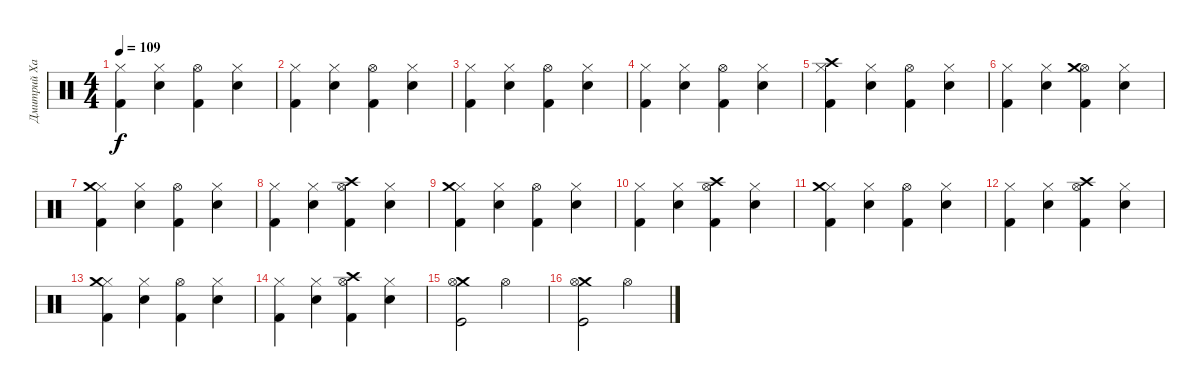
\track ("Дмитрий Хакимов" "Дмитрий Ха") {instrument percussion}
\staff {score}
\articulation defaults
\ts (4 4)
\tempo 109
\clef neutral
\ks c
("Hi-Hat (closed)" "Kick (hit) 2").4{dy f} ("Hi-Hat (closed)" "Snare (hit) 2").4 ("Hi-Hat (open)" "Kick (hit) 2").4 ("Hi-Hat (closed)" "Snare (hit) 2").4 |
("Hi-Hat (closed)" "Kick (hit) 2").4 ("Hi-Hat (closed)" "Snare (hit) 2").4 ("Hi-Hat (open)" "Kick (hit) 2").4 ("Hi-Hat (closed)" "Snare (hit) 2").4 |
("Hi-Hat (closed)" "Kick (hit) 2").4 ("Hi-Hat (closed)" "Snare (hit) 2").4 ("Hi-Hat (open)" "Kick (hit) 2").4 ("Hi-Hat (closed)" "Snare (hit) 2").4 |
("Hi-Hat (closed)" "Kick (hit) 2").4 ("Hi-Hat (closed)" "Snare (hit) 2").4 ("Hi-Hat (open)" "Kick (hit) 2").4 ("Hi-Hat (closed)" "Snare (hit) 2").4 |
("Hi-Hat (closed)" "Kick (hit) 2" "Crash high (hit)").4 ("Hi-Hat (closed)" "Snare (hit) 2").4 ("Hi-Hat (open)" "Kick (hit) 2").4 ("Hi-Hat (closed)" "Snare (hit) 2").4 |
("Hi-Hat (closed)" "Kick (hit) 2").4 ("Hi-Hat (closed)" "Snare (hit) 2").4 ("Hi-Hat (open)" "Crash medium (hit)" "Kick (hit) 2").4 ("Hi-Hat (closed)" "Snare (hit) 2").4 |
("Hi-Hat (closed)" "Kick (hit) 2" "Crash medium (hit)").4 ("Hi-Hat (closed)" "Snare (hit) 2").4 ("Hi-Hat (open)" "Kick (hit) 2").4 ("Hi-Hat (closed)" "Snare (hit) 2").4 |
("Hi-Hat (closed)" "Kick (hit) 2").4 ("Hi-Hat (closed)" "Snare (hit) 2").4 ("Hi-Hat (open)" "Crash high (hit)" "Kick (hit) 2").4 ("Hi-Hat (closed)" "Snare (hit) 2").4 |
("Hi-Hat (closed)" "Kick (hit) 2" "Crash medium (hit)").4 ("Hi-Hat (closed)" "Snare (hit) 2").4 ("Hi-Hat (open)" "Kick (hit) 2").4 ("Hi-Hat (closed)" "Snare (hit) 2").4 |
("Hi-Hat (closed)" "Kick (hit) 2").4 ("Hi-Hat (closed)" "Snare (hit) 2").4 ("Hi-Hat (open)" "Crash high (hit)" "Kick (hit) 2").4 ("Hi-Hat (closed)" "Snare (hit) 2").4 |
("Hi-Hat (closed)" "Kick (hit) 2" "Crash medium (hit)").4 ("Hi-Hat (closed)" "Snare (hit) 2").4 ("Hi-Hat (open)" "Kick (hit) 2").4 ("Hi-Hat (closed)" "Snare (hit) 2").4 |
("Hi-Hat (closed)" "Kick (hit) 2").4 ("Hi-Hat (closed)" "Snare (hit) 2").4 ("Hi-Hat (open)" "Crash high (hit)" "Kick (hit) 2").4 ("Hi-Hat (closed)" "Snare (hit) 2").4 |
("Hi-Hat (closed)" "Kick (hit) 2" "Crash medium (hit)").4 ("Hi-Hat (closed)" "Snare (hit) 2").4 ("Hi-Hat (open)" "Kick (hit) 2").4 ("Hi-Hat (closed)" "Snare (hit) 2").4 |
("Hi-Hat (closed)" "Kick (hit) 2").4 ("Hi-Hat (closed)" "Snare (hit) 2").4 ("Hi-Hat (open)" "Crash high (hit)" "Kick (hit) 2").4 ("Hi-Hat (closed)" "Snare (hit) 2").4 |
("Crash medium (hit)" "Hi-Hat (open)" "Kick (hit)").2 "Hi-Hat (open)".2 |
("Crash medium (hit)" "Hi-Hat (open)" "Kick (hit)").2 "Hi-Hat (open)".2
